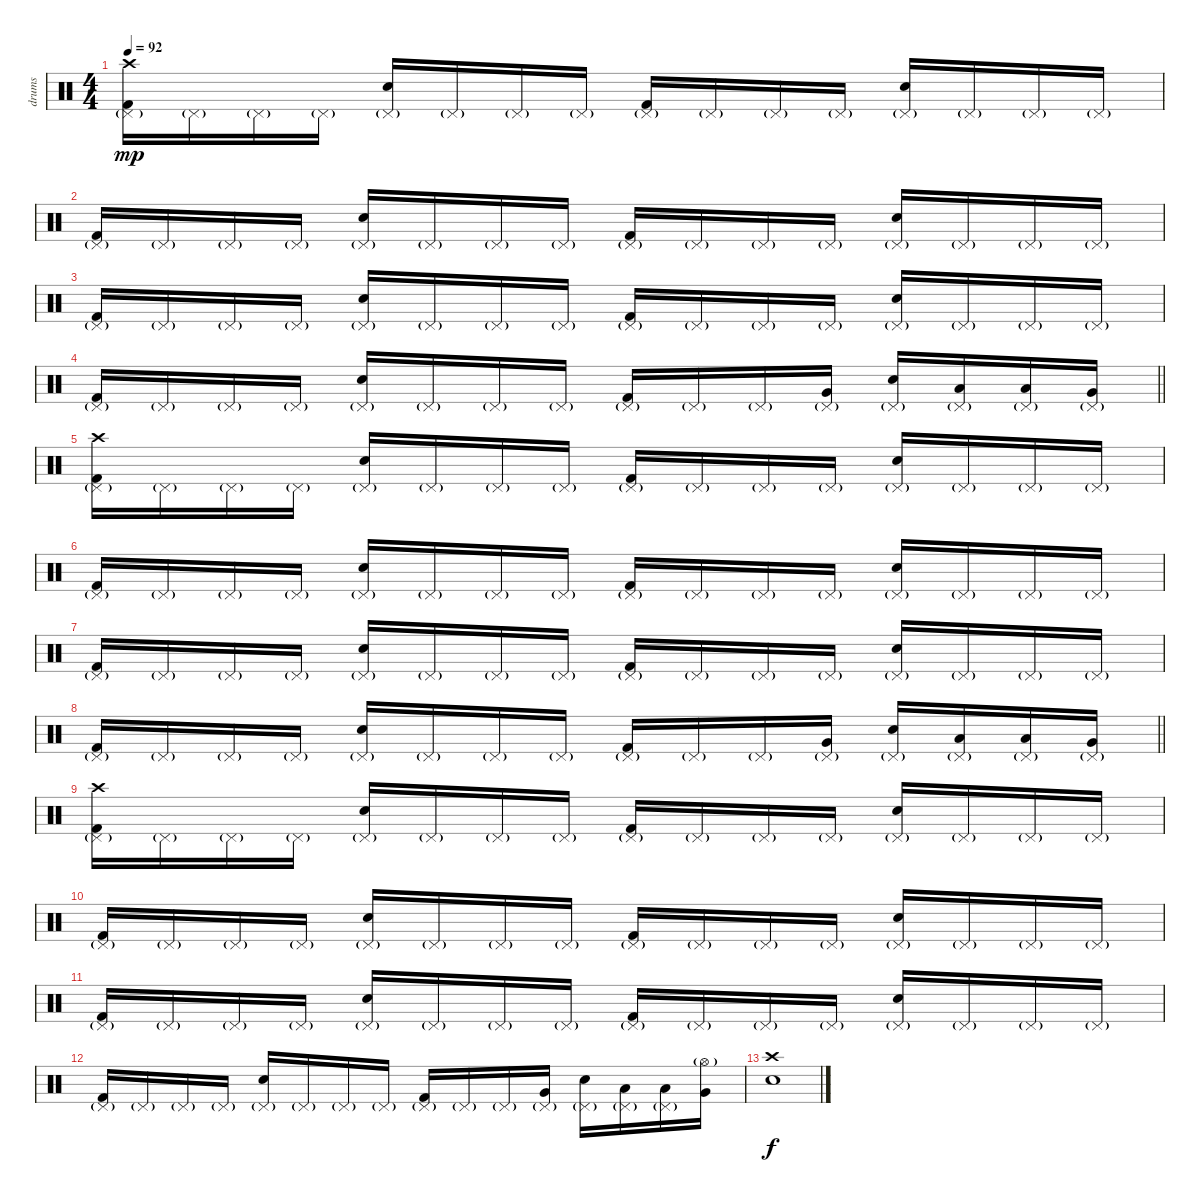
\track ("drums" "drums") {instrument percussion}
\staff {score}
\articulation defaults
\ts (4 4)
\tempo 92
\clef neutral
\ks c
("Kick (hit) 2" "Pedal Hi-Hat (hit)"{g} "Crash high (hit)").16{dy mp} "Pedal Hi-Hat (hit)"{g}.16 "Pedal Hi-Hat (hit)"{g}.16 "Pedal Hi-Hat (hit)"{g}.16 ("Electric Snare (hit)" "Pedal Hi-Hat (hit)"{g}).16 "Pedal Hi-Hat (hit)"{g}.16 "Pedal Hi-Hat (hit)"{g}.16 "Pedal Hi-Hat (hit)"{g}.16 ("Kick (hit) 2" "Pedal Hi-Hat (hit)"{g}).16 "Pedal Hi-Hat (hit)"{g}.16 "Pedal Hi-Hat (hit)"{g}.16 "Pedal Hi-Hat (hit)"{g}.16 ("Electric Snare (hit)" "Pedal Hi-Hat (hit)"{g}).16 "Pedal Hi-Hat (hit)"{g}.16 "Pedal Hi-Hat (hit)"{g}.16 "Pedal Hi-Hat (hit)"{g}.16 |
("Kick (hit) 2" "Pedal Hi-Hat (hit)"{g}).16 "Pedal Hi-Hat (hit)"{g}.16 "Pedal Hi-Hat (hit)"{g}.16 "Pedal Hi-Hat (hit)"{g}.16 ("Electric Snare (hit)" "Pedal Hi-Hat (hit)"{g}).16 "Pedal Hi-Hat (hit)"{g}.16 "Pedal Hi-Hat (hit)"{g}.16 "Pedal Hi-Hat (hit)"{g}.16 ("Kick (hit) 2" "Pedal Hi-Hat (hit)"{g}).16 "Pedal Hi-Hat (hit)"{g}.16 "Pedal Hi-Hat (hit)"{g}.16 "Pedal Hi-Hat (hit)"{g}.16 ("Electric Snare (hit)" "Pedal Hi-Hat (hit)"{g}).16 "Pedal Hi-Hat (hit)"{g}.16 "Pedal Hi-Hat (hit)"{g}.16 "Pedal Hi-Hat (hit)"{g}.16 |
("Kick (hit) 2" "Pedal Hi-Hat (hit)"{g}).16 "Pedal Hi-Hat (hit)"{g}.16 "Pedal Hi-Hat (hit)"{g}.16 "Pedal Hi-Hat (hit)"{g}.16 ("Electric Snare (hit)" "Pedal Hi-Hat (hit)"{g}).16 "Pedal Hi-Hat (hit)"{g}.16 "Pedal Hi-Hat (hit)"{g}.16 "Pedal Hi-Hat (hit)"{g}.16 ("Kick (hit) 2" "Pedal Hi-Hat (hit)"{g}).16 "Pedal Hi-Hat (hit)"{g}.16 "Pedal Hi-Hat (hit)"{g}.16 "Pedal Hi-Hat (hit)"{g}.16 ("Electric Snare (hit)" "Pedal Hi-Hat (hit)"{g}).16 "Pedal Hi-Hat (hit)"{g}.16 "Pedal Hi-Hat (hit)"{g}.16 "Pedal Hi-Hat (hit)"{g}.16 |
\barLineRight lightlight
("Kick (hit) 2" "Pedal Hi-Hat (hit)"{g}).16 "Pedal Hi-Hat (hit)"{g}.16 "Pedal Hi-Hat (hit)"{g}.16 "Pedal Hi-Hat (hit)"{g}.16 ("Electric Snare (hit)" "Pedal Hi-Hat (hit)"{g}).16 "Pedal Hi-Hat (hit)"{g}.16 "Pedal Hi-Hat (hit)"{g}.16 "Pedal Hi-Hat (hit)"{g}.16 ("Kick (hit) 2" "Pedal Hi-Hat (hit)"{g}).16 "Pedal Hi-Hat (hit)"{g}.16 "Pedal Hi-Hat (hit)"{g}.16 ("Very Low Tom (hit)" "Pedal Hi-Hat (hit)"{g}).16 ("Electric Snare (hit)" "Pedal Hi-Hat (hit)"{g}).16 ("Low Floor Tom (hit)" "Pedal Hi-Hat (hit)"{g}).16 ("Low Floor Tom (hit)" "Pedal Hi-Hat (hit)"{g}).16 ("Very Low Tom (hit)" "Pedal Hi-Hat (hit)"{g}).16 |
("Kick (hit) 2" "Pedal Hi-Hat (hit)"{g} "Crash high (hit)").16 "Pedal Hi-Hat (hit)"{g}.16 "Pedal Hi-Hat (hit)"{g}.16 "Pedal Hi-Hat (hit)"{g}.16 ("Electric Snare (hit)" "Pedal Hi-Hat (hit)"{g}).16 "Pedal Hi-Hat (hit)"{g}.16 "Pedal Hi-Hat (hit)"{g}.16 "Pedal Hi-Hat (hit)"{g}.16 ("Kick (hit) 2" "Pedal Hi-Hat (hit)"{g}).16 "Pedal Hi-Hat (hit)"{g}.16 "Pedal Hi-Hat (hit)"{g}.16 "Pedal Hi-Hat (hit)"{g}.16 ("Electric Snare (hit)" "Pedal Hi-Hat (hit)"{g}).16 "Pedal Hi-Hat (hit)"{g}.16 "Pedal Hi-Hat (hit)"{g}.16 "Pedal Hi-Hat (hit)"{g}.16 |
("Kick (hit) 2" "Pedal Hi-Hat (hit)"{g}).16 "Pedal Hi-Hat (hit)"{g}.16 "Pedal Hi-Hat (hit)"{g}.16 "Pedal Hi-Hat (hit)"{g}.16 ("Electric Snare (hit)" "Pedal Hi-Hat (hit)"{g}).16 "Pedal Hi-Hat (hit)"{g}.16 "Pedal Hi-Hat (hit)"{g}.16 "Pedal Hi-Hat (hit)"{g}.16 ("Kick (hit) 2" "Pedal Hi-Hat (hit)"{g}).16 "Pedal Hi-Hat (hit)"{g}.16 "Pedal Hi-Hat (hit)"{g}.16 "Pedal Hi-Hat (hit)"{g}.16 ("Electric Snare (hit)" "Pedal Hi-Hat (hit)"{g}).16 "Pedal Hi-Hat (hit)"{g}.16 "Pedal Hi-Hat (hit)"{g}.16 "Pedal Hi-Hat (hit)"{g}.16 |
("Kick (hit) 2" "Pedal Hi-Hat (hit)"{g}).16 "Pedal Hi-Hat (hit)"{g}.16 "Pedal Hi-Hat (hit)"{g}.16 "Pedal Hi-Hat (hit)"{g}.16 ("Electric Snare (hit)" "Pedal Hi-Hat (hit)"{g}).16 "Pedal Hi-Hat (hit)"{g}.16 "Pedal Hi-Hat (hit)"{g}.16 "Pedal Hi-Hat (hit)"{g}.16 ("Kick (hit) 2" "Pedal Hi-Hat (hit)"{g}).16 "Pedal Hi-Hat (hit)"{g}.16 "Pedal Hi-Hat (hit)"{g}.16 "Pedal Hi-Hat (hit)"{g}.16 ("Electric Snare (hit)" "Pedal Hi-Hat (hit)"{g}).16 "Pedal Hi-Hat (hit)"{g}.16 "Pedal Hi-Hat (hit)"{g}.16 "Pedal Hi-Hat (hit)"{g}.16 |
\barLineRight lightlight
("Kick (hit) 2" "Pedal Hi-Hat (hit)"{g}).16 "Pedal Hi-Hat (hit)"{g}.16 "Pedal Hi-Hat (hit)"{g}.16 "Pedal Hi-Hat (hit)"{g}.16 ("Electric Snare (hit)" "Pedal Hi-Hat (hit)"{g}).16 "Pedal Hi-Hat (hit)"{g}.16 "Pedal Hi-Hat (hit)"{g}.16 "Pedal Hi-Hat (hit)"{g}.16 ("Kick (hit) 2" "Pedal Hi-Hat (hit)"{g}).16 "Pedal Hi-Hat (hit)"{g}.16 "Pedal Hi-Hat (hit)"{g}.16 ("Very Low Tom (hit)" "Pedal Hi-Hat (hit)"{g}).16 ("Electric Snare (hit)" "Pedal Hi-Hat (hit)"{g}).16 ("Low Floor Tom (hit)" "Pedal Hi-Hat (hit)"{g}).16 ("Low Floor Tom (hit)" "Pedal Hi-Hat (hit)"{g}).16 ("Very Low Tom (hit)" "Pedal Hi-Hat (hit)"{g}).16 |
("Kick (hit) 2" "Pedal Hi-Hat (hit)"{g} "Crash high (hit)").16 "Pedal Hi-Hat (hit)"{g}.16 "Pedal Hi-Hat (hit)"{g}.16 "Pedal Hi-Hat (hit)"{g}.16 ("Electric Snare (hit)" "Pedal Hi-Hat (hit)"{g}).16 "Pedal Hi-Hat (hit)"{g}.16 "Pedal Hi-Hat (hit)"{g}.16 "Pedal Hi-Hat (hit)"{g}.16 ("Kick (hit) 2" "Pedal Hi-Hat (hit)"{g}).16 "Pedal Hi-Hat (hit)"{g}.16 "Pedal Hi-Hat (hit)"{g}.16 "Pedal Hi-Hat (hit)"{g}.16 ("Electric Snare (hit)" "Pedal Hi-Hat (hit)"{g}).16 "Pedal Hi-Hat (hit)"{g}.16 "Pedal Hi-Hat (hit)"{g}.16 "Pedal Hi-Hat (hit)"{g}.16 |
("Kick (hit) 2" "Pedal Hi-Hat (hit)"{g}).16 "Pedal Hi-Hat (hit)"{g}.16 "Pedal Hi-Hat (hit)"{g}.16 "Pedal Hi-Hat (hit)"{g}.16 ("Electric Snare (hit)" "Pedal Hi-Hat (hit)"{g}).16 "Pedal Hi-Hat (hit)"{g}.16 "Pedal Hi-Hat (hit)"{g}.16 "Pedal Hi-Hat (hit)"{g}.16 ("Kick (hit) 2" "Pedal Hi-Hat (hit)"{g}).16 "Pedal Hi-Hat (hit)"{g}.16 "Pedal Hi-Hat (hit)"{g}.16 "Pedal Hi-Hat (hit)"{g}.16 ("Electric Snare (hit)" "Pedal Hi-Hat (hit)"{g}).16 "Pedal Hi-Hat (hit)"{g}.16 "Pedal Hi-Hat (hit)"{g}.16 "Pedal Hi-Hat (hit)"{g}.16 |
("Kick (hit) 2" "Pedal Hi-Hat (hit)"{g}).16 "Pedal Hi-Hat (hit)"{g}.16 "Pedal Hi-Hat (hit)"{g}.16 "Pedal Hi-Hat (hit)"{g}.16 ("Electric Snare (hit)" "Pedal Hi-Hat (hit)"{g}).16 "Pedal Hi-Hat (hit)"{g}.16 "Pedal Hi-Hat (hit)"{g}.16 "Pedal Hi-Hat (hit)"{g}.16 ("Kick (hit) 2" "Pedal Hi-Hat (hit)"{g}).16 "Pedal Hi-Hat (hit)"{g}.16 "Pedal Hi-Hat (hit)"{g}.16 "Pedal Hi-Hat (hit)"{g}.16 ("Electric Snare (hit)" "Pedal Hi-Hat (hit)"{g}).16 "Pedal Hi-Hat (hit)"{g}.16 "Pedal Hi-Hat (hit)"{g}.16 "Pedal Hi-Hat (hit)"{g}.16 |
("Kick (hit) 2" "Pedal Hi-Hat (hit)"{g}).16 "Pedal Hi-Hat (hit)"{g}.16 "Pedal Hi-Hat (hit)"{g}.16 "Pedal Hi-Hat (hit)"{g}.16 ("Electric Snare (hit)" "Pedal Hi-Hat (hit)"{g}).16 "Pedal Hi-Hat (hit)"{g}.16 "Pedal Hi-Hat (hit)"{g}.16 "Pedal Hi-Hat (hit)"{g}.16 ("Kick (hit) 2" "Pedal Hi-Hat (hit)"{g}).16 "Pedal Hi-Hat (hit)"{g}.16 "Pedal Hi-Hat (hit)"{g}.16 ("Very Low Tom (hit)" "Pedal Hi-Hat (hit)"{g}).16 ("Electric Snare (hit)" "Pedal Hi-Hat (hit)"{g}).16 ("Low Floor Tom (hit)" "Pedal Hi-Hat (hit)"{g}).16 ("Low Floor Tom (hit)" "Pedal Hi-Hat (hit)"{g}).16 ("Very Low Tom (hit)" "Hi-Hat (open)"{g}).16 |
("Electric Snare (hit)" "Crash high (hit)").1{dy f}
